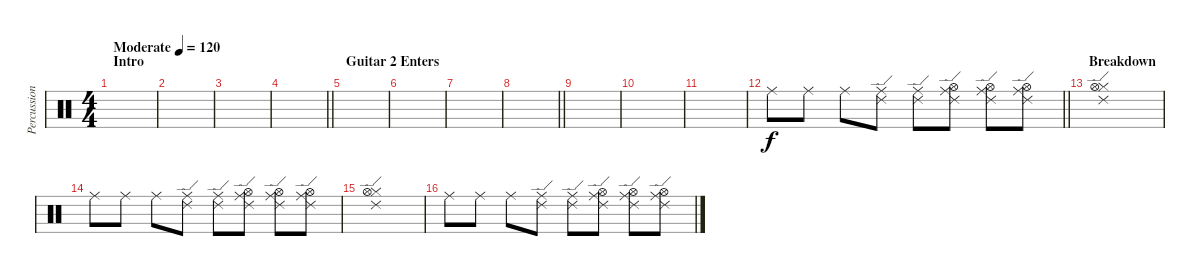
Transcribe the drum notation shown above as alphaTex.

\track ("Percussion" "Percussion") {instrument percussion}
\staff {score}
\articulation defaults
\ts (4 4)
\section ("" "Intro")
\tempo (120 "Moderate")
\clef neutral
\ks c
|
|
|
\barLineRight lightlight
|
\section ("" "Guitar 2 Enters")
|
|
|
\barLineRight lightlight
|
|
|
|
\barLineRight lightlight "Ride (middle)".8{volume 16} "Ride (middle)".8 "Ride (middle)".8
("Ride (middle)" "Ride (edge) 2").8 ("Ride (middle)" "Ride (edge) 2").8 ("Ride (middle)" "Ride (edge) 2" "Hi-Hat (open)").8 ("Ride (middle)" "Ride (edge) 2" "Hi-Hat (open)").8 ("Ride (middle)" "Ride (edge) 2" "Hi-Hat (open)").8 |
\section ("" "Breakdown")
("Hi-Hat (closed)" "Ride (edge) 2" "Hi-Hat (open)").1{volume 0} |
"Ride (middle)".8{volume 16} "Ride (middle)".8 "Ride (middle)".8 ("Ride (middle)" "Ride (edge) 2").8 ("Ride (middle)" "Ride (edge) 2").8 ("Ride (middle)" "Ride (edge) 2" "Hi-Hat (open)").8 ("Ride (middle)" "Ride (edge) 2" "Hi-Hat (open)").8 ("Ride (middle)" "Ride (edge) 2" "Hi-Hat (open)").8 |
("Hi-Hat (closed)" "Ride (edge) 2" "Hi-Hat (open)").1{volume 0} |
"Ride (middle)".8{volume 16} "Ride (middle)".8 "Ride (middle)".8 ("Ride (middle)" "Ride (edge) 2").8 ("Ride (middle)" "Ride (edge) 2").8 ("Ride (middle)" "Ride (edge) 2" "Hi-Hat (open)").8 ("Ride (middle)" "Ride (edge) 2" "Hi-Hat (open)").8 ("Ride (middle)" "Ride (edge) 2" "Hi-Hat (open)").8
